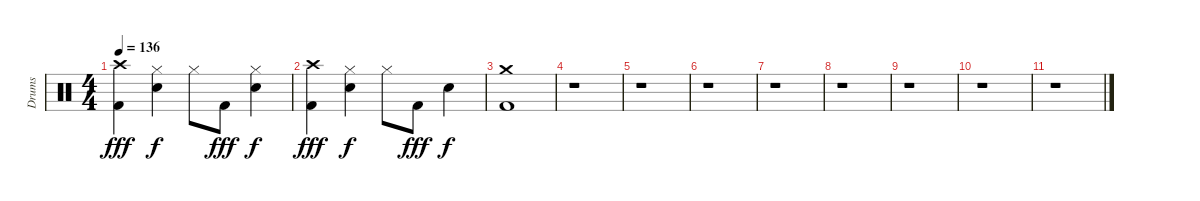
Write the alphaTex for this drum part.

\track ("Drums" "Drums") {instrument percussion}
\staff {score}
\articulation defaults
\ts (4 4)
\tempo 136
\clef neutral
\ks c
("Crash high (hit)" "Kick (hit) 2").4{txt " " dy fff} ("Hi-Hat (closed)" "Snare (hit) 2").4{dy f} "Hi-Hat (closed)".8 "Kick (hit) 2".8{dy fff} ("Hi-Hat (closed)" "Snare (hit) 2").4{dy f} |
("Crash high (hit)" "Kick (hit) 2").4{txt " " dy fff} ("Hi-Hat (closed)" "Snare (hit) 2").4{dy f} "Hi-Hat (closed)".8 "Kick (hit) 2".8{dy fff} "Snare (hit) 2".4{dy f} |
("Crash medium (hit)" "Kick (hit) 2").1 |
r.1 |
r.1 |
r.1 |
r.1 |
r.1 |
r.1 |
r.1 |
r.1
